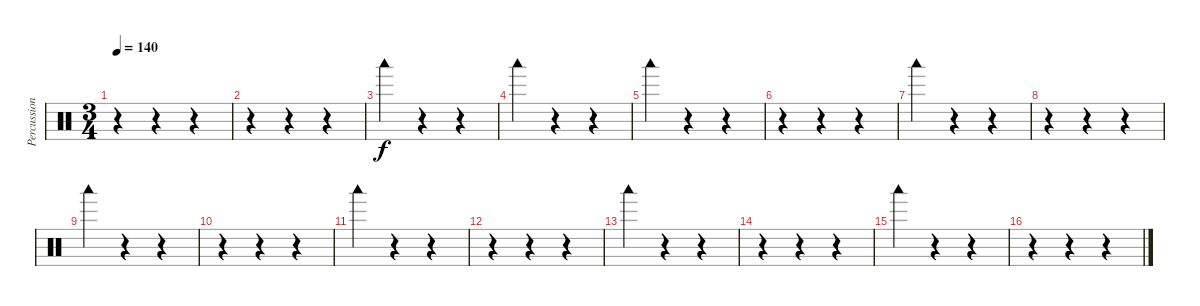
\track ("Percussions" "Percussion") {instrument percussion}
\staff {score}
\articulation defaults
\ts (3 4)
\tempo 140
\clef neutral
\ks c
r.4{dy f} r.4 r.4 |
r.4 r.4 r.4 |
"Woodblock low (hit)".4 r.4 r.4 |
"Woodblock low (hit)".4 r.4 r.4 |
"Woodblock low (hit)".4 r.4 r.4 |
r.4 r.4 r.4 |
"Woodblock low (hit)".4 r.4 r.4 |
r.4 r.4 r.4 |
"Woodblock low (hit)".4 r.4 r.4 |
r.4 r.4 r.4 |
"Woodblock low (hit)".4 r.4 r.4 |
r.4 r.4 r.4 |
"Woodblock low (hit)".4 r.4 r.4 |
r.4 r.4 r.4 |
"Woodblock low (hit)".4 r.4 r.4 |
r.4 r.4 r.4
